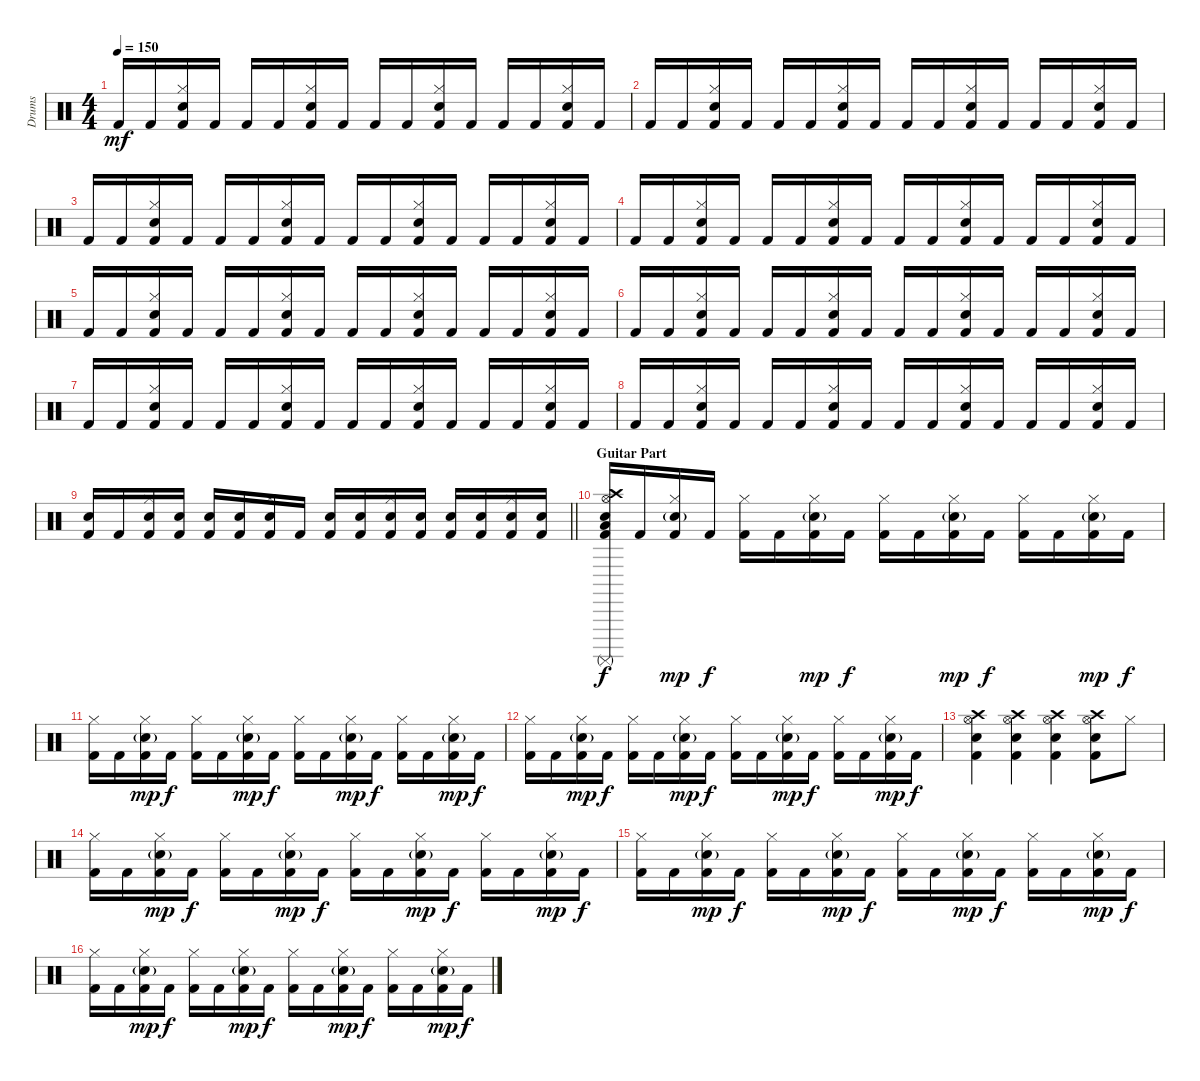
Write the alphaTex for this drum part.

\track ("Drums" "Drums") {instrument percussion}
\staff {score}
\articulation defaults
\ts (4 4)
\tempo 150
\clef neutral
\ks c "Kick (hit) 2".16{dy mf} "Kick (hit) 2".16
("Hi-Hat (closed)" "Electric Snare (hit)" "Kick (hit) 2").16 "Kick (hit) 2".16 "Kick (hit) 2".16 "Kick (hit) 2".16 ("Hi-Hat (closed)" "Electric Snare (hit)" "Kick (hit) 2").16 "Kick (hit) 2".16 "Kick (hit) 2".16 "Kick (hit) 2".16 ("Hi-Hat (closed)" "Electric Snare (hit)" "Kick (hit) 2").16 "Kick (hit) 2".16 "Kick (hit) 2".16 "Kick (hit) 2".16 ("Hi-Hat (closed)" "Electric Snare (hit)" "Kick (hit) 2").16 "Kick (hit) 2".16 |
"Kick (hit) 2".16 "Kick (hit) 2".16 ("Hi-Hat (closed)" "Electric Snare (hit)" "Kick (hit) 2").16 "Kick (hit) 2".16 "Kick (hit) 2".16 "Kick (hit) 2".16 ("Hi-Hat (closed)" "Electric Snare (hit)" "Kick (hit) 2").16 "Kick (hit) 2".16 "Kick (hit) 2".16 "Kick (hit) 2".16 ("Hi-Hat (closed)" "Electric Snare (hit)" "Kick (hit) 2").16 "Kick (hit) 2".16 "Kick (hit) 2".16 "Kick (hit) 2".16 ("Hi-Hat (closed)" "Electric Snare (hit)" "Kick (hit) 2").16 "Kick (hit) 2".16 |
"Kick (hit) 2".16 "Kick (hit) 2".16 ("Hi-Hat (closed)" "Electric Snare (hit)" "Kick (hit) 2").16 "Kick (hit) 2".16 "Kick (hit) 2".16 "Kick (hit) 2".16 ("Hi-Hat (closed)" "Electric Snare (hit)" "Kick (hit) 2").16 "Kick (hit) 2".16 "Kick (hit) 2".16 "Kick (hit) 2".16 ("Hi-Hat (closed)" "Electric Snare (hit)" "Kick (hit) 2").16 "Kick (hit) 2".16 "Kick (hit) 2".16 "Kick (hit) 2".16 ("Hi-Hat (closed)" "Electric Snare (hit)" "Kick (hit) 2").16 "Kick (hit) 2".16 |
"Kick (hit) 2".16 "Kick (hit) 2".16 ("Hi-Hat (closed)" "Electric Snare (hit)" "Kick (hit) 2").16 "Kick (hit) 2".16 "Kick (hit) 2".16 "Kick (hit) 2".16 ("Hi-Hat (closed)" "Electric Snare (hit)" "Kick (hit) 2").16 "Kick (hit) 2".16 "Kick (hit) 2".16 "Kick (hit) 2".16 ("Hi-Hat (closed)" "Electric Snare (hit)" "Kick (hit) 2").16 "Kick (hit) 2".16 "Kick (hit) 2".16 "Kick (hit) 2".16 ("Hi-Hat (closed)" "Electric Snare (hit)" "Kick (hit) 2").16 "Kick (hit) 2".16 |
"Kick (hit) 2".16 "Kick (hit) 2".16 ("Hi-Hat (closed)" "Electric Snare (hit)" "Kick (hit) 2").16 "Kick (hit) 2".16 "Kick (hit) 2".16 "Kick (hit) 2".16 ("Hi-Hat (closed)" "Electric Snare (hit)" "Kick (hit) 2").16 "Kick (hit) 2".16 "Kick (hit) 2".16 "Kick (hit) 2".16 ("Hi-Hat (closed)" "Electric Snare (hit)" "Kick (hit) 2").16 "Kick (hit) 2".16 "Kick (hit) 2".16 "Kick (hit) 2".16 ("Hi-Hat (closed)" "Electric Snare (hit)" "Kick (hit) 2").16 "Kick (hit) 2".16 |
"Kick (hit) 2".16 "Kick (hit) 2".16 ("Hi-Hat (closed)" "Electric Snare (hit)" "Kick (hit) 2").16 "Kick (hit) 2".16 "Kick (hit) 2".16 "Kick (hit) 2".16 ("Hi-Hat (closed)" "Electric Snare (hit)" "Kick (hit) 2").16 "Kick (hit) 2".16 "Kick (hit) 2".16 "Kick (hit) 2".16 ("Hi-Hat (closed)" "Electric Snare (hit)" "Kick (hit) 2").16 "Kick (hit) 2".16 "Kick (hit) 2".16 "Kick (hit) 2".16 ("Hi-Hat (closed)" "Electric Snare (hit)" "Kick (hit) 2").16 "Kick (hit) 2".16 |
"Kick (hit) 2".16 "Kick (hit) 2".16 ("Hi-Hat (closed)" "Electric Snare (hit)" "Kick (hit) 2").16 "Kick (hit) 2".16 "Kick (hit) 2".16 "Kick (hit) 2".16 ("Hi-Hat (closed)" "Electric Snare (hit)" "Kick (hit) 2").16 "Kick (hit) 2".16 "Kick (hit) 2".16 "Kick (hit) 2".16 ("Hi-Hat (closed)" "Electric Snare (hit)" "Kick (hit) 2").16 "Kick (hit) 2".16 "Kick (hit) 2".16 "Kick (hit) 2".16 ("Hi-Hat (closed)" "Electric Snare (hit)" "Kick (hit) 2").16 "Kick (hit) 2".16 |
"Kick (hit) 2".16 "Kick (hit) 2".16 ("Hi-Hat (closed)" "Electric Snare (hit)" "Kick (hit) 2").16 "Kick (hit) 2".16 "Kick (hit) 2".16 "Kick (hit) 2".16 ("Hi-Hat (closed)" "Electric Snare (hit)" "Kick (hit) 2").16 "Kick (hit) 2".16 "Kick (hit) 2".16 "Kick (hit) 2".16 ("Hi-Hat (closed)" "Electric Snare (hit)" "Kick (hit) 2").16 "Kick (hit) 2".16 "Kick (hit) 2".16 "Kick (hit) 2".16 ("Hi-Hat (closed)" "Electric Snare (hit)" "Kick (hit) 2").16 "Kick (hit) 2".16 |
\barLineRight lightlight
("Electric Snare (hit)" "Kick (hit) 2").16 "Kick (hit) 2".16 ("Hi-Hat (closed)" "Electric Snare (hit)" "Kick (hit) 2").16 ("Electric Snare (hit)" "Kick (hit) 2").16 ("Electric Snare (hit)" "Kick (hit) 2").16 ("Electric Snare (hit)" "Kick (hit) 2").16 ("Hi-Hat (closed)" "Electric Snare (hit)" "Kick (hit) 2").16 "Kick (hit) 2".16 ("Electric Snare (hit)" "Kick (hit) 2").16 ("Electric Snare (hit)" "Kick (hit) 2").16 ("Hi-Hat (closed)" "Electric Snare (hit)" "Kick (hit) 2").16 ("Electric Snare (hit)" "Kick (hit) 2").16 ("Electric Snare (hit)" "Kick (hit) 2").16 ("Electric Snare (hit)" "Kick (hit) 2").16 ("Hi-Hat (closed)" "Electric Snare (hit)" "Kick (hit) 2").16 ("Electric Snare (hit)" "Kick (hit) 2").16 |
\section ("" "Guitar Part")
("Crash high (hit)" "Hi-Hat (open)" "Electric Snare (hit)" "Low Floor Tom (hit)" "Surdo (mute)" "Kick (hit) 2").16{dy f} "Kick (hit) 2".16 ("Hi-Hat (closed)" "Electric Snare (hit)"{g} "Kick (hit) 2").16{dy mp} "Kick (hit) 2".16{dy f} ("Hi-Hat (closed)" "Kick (hit) 2").16 "Kick (hit) 2".16 ("Hi-Hat (closed)" "Electric Snare (hit)"{g} "Kick (hit) 2").16{dy mp} "Kick (hit) 2".16{dy f} ("Hi-Hat (closed)" "Kick (hit) 2").16 "Kick (hit) 2".16 ("Hi-Hat (closed)" "Electric Snare (hit)"{g} "Kick (hit) 2").16{dy mp} "Kick (hit) 2".16{dy f} ("Hi-Hat (closed)" "Kick (hit) 2").16 "Kick (hit) 2".16 ("Hi-Hat (closed)" "Electric Snare (hit)"{g} "Kick (hit) 2").16{dy mp} "Kick (hit) 2".16{dy f} |
("Hi-Hat (closed)" "Kick (hit) 2").16 "Kick (hit) 2".16 ("Hi-Hat (closed)" "Electric Snare (hit)"{g} "Kick (hit) 2").16{dy mp} "Kick (hit) 2".16{dy f} ("Hi-Hat (closed)" "Kick (hit) 2").16 "Kick (hit) 2".16 ("Hi-Hat (closed)" "Electric Snare (hit)"{g} "Kick (hit) 2").16{dy mp} "Kick (hit) 2".16{dy f} ("Hi-Hat (closed)" "Kick (hit) 2").16 "Kick (hit) 2".16 ("Hi-Hat (closed)" "Electric Snare (hit)"{g} "Kick (hit) 2").16{dy mp} "Kick (hit) 2".16{dy f} ("Hi-Hat (closed)" "Kick (hit) 2").16 "Kick (hit) 2".16 ("Hi-Hat (closed)" "Electric Snare (hit)"{g} "Kick (hit) 2").16{dy mp} "Kick (hit) 2".16{dy f} |
("Hi-Hat (closed)" "Kick (hit) 2").16 "Kick (hit) 2".16 ("Hi-Hat (closed)" "Electric Snare (hit)"{g} "Kick (hit) 2").16{dy mp} "Kick (hit) 2".16{dy f} ("Hi-Hat (closed)" "Kick (hit) 2").16 "Kick (hit) 2".16 ("Hi-Hat (closed)" "Electric Snare (hit)"{g} "Kick (hit) 2").16{dy mp} "Kick (hit) 2".16{dy f} ("Hi-Hat (closed)" "Kick (hit) 2").16 "Kick (hit) 2".16 ("Hi-Hat (closed)" "Electric Snare (hit)"{g} "Kick (hit) 2").16{dy mp} "Kick (hit) 2".16{dy f} ("Hi-Hat (closed)" "Kick (hit) 2").16 "Kick (hit) 2".16 ("Hi-Hat (closed)" "Electric Snare (hit)"{g} "Kick (hit) 2").16{dy mp} "Kick (hit) 2".16{dy f} |
("Crash high (hit)" "Hi-Hat (open)" "Electric Snare (hit)" "Kick (hit) 2").4 ("Crash high (hit)" "Hi-Hat (open)" "Electric Snare (hit)" "Kick (hit) 2").4 ("Crash high (hit)" "Hi-Hat (open)" "Electric Snare (hit)" "Kick (hit) 2").4 ("Crash high (hit)" "Hi-Hat (open)" "Electric Snare (hit)" "Kick (hit) 2").8 "Hi-Hat (closed)".8 |
("Hi-Hat (closed)" "Kick (hit) 2").16 "Kick (hit) 2".16 ("Hi-Hat (closed)" "Electric Snare (hit)"{g} "Kick (hit) 2").16{dy mp} "Kick (hit) 2".16{dy f} ("Hi-Hat (closed)" "Kick (hit) 2").16 "Kick (hit) 2".16 ("Hi-Hat (closed)" "Electric Snare (hit)"{g} "Kick (hit) 2").16{dy mp} "Kick (hit) 2".16{dy f} ("Hi-Hat (closed)" "Kick (hit) 2").16 "Kick (hit) 2".16 ("Hi-Hat (closed)" "Electric Snare (hit)"{g} "Kick (hit) 2").16{dy mp} "Kick (hit) 2".16{dy f} ("Hi-Hat (closed)" "Kick (hit) 2").16 "Kick (hit) 2".16 ("Hi-Hat (closed)" "Electric Snare (hit)"{g} "Kick (hit) 2").16{dy mp} "Kick (hit) 2".16{dy f} |
("Hi-Hat (closed)" "Kick (hit) 2").16 "Kick (hit) 2".16 ("Hi-Hat (closed)" "Electric Snare (hit)"{g} "Kick (hit) 2").16{dy mp} "Kick (hit) 2".16{dy f} ("Hi-Hat (closed)" "Kick (hit) 2").16 "Kick (hit) 2".16 ("Hi-Hat (closed)" "Electric Snare (hit)"{g} "Kick (hit) 2").16{dy mp} "Kick (hit) 2".16{dy f} ("Hi-Hat (closed)" "Kick (hit) 2").16 "Kick (hit) 2".16 ("Hi-Hat (closed)" "Electric Snare (hit)"{g} "Kick (hit) 2").16{dy mp} "Kick (hit) 2".16{dy f} ("Hi-Hat (closed)" "Kick (hit) 2").16 "Kick (hit) 2".16 ("Hi-Hat (closed)" "Electric Snare (hit)"{g} "Kick (hit) 2").16{dy mp} "Kick (hit) 2".16{dy f} |
("Hi-Hat (closed)" "Kick (hit) 2").16 "Kick (hit) 2".16 ("Hi-Hat (closed)" "Electric Snare (hit)"{g} "Kick (hit) 2").16{dy mp} "Kick (hit) 2".16{dy f} ("Hi-Hat (closed)" "Kick (hit) 2").16 "Kick (hit) 2".16 ("Hi-Hat (closed)" "Electric Snare (hit)"{g} "Kick (hit) 2").16{dy mp} "Kick (hit) 2".16{dy f} ("Hi-Hat (closed)" "Kick (hit) 2").16 "Kick (hit) 2".16 ("Hi-Hat (closed)" "Electric Snare (hit)"{g} "Kick (hit) 2").16{dy mp} "Kick (hit) 2".16{dy f} ("Hi-Hat (closed)" "Kick (hit) 2").16 "Kick (hit) 2".16 ("Hi-Hat (closed)" "Electric Snare (hit)"{g} "Kick (hit) 2").16{dy mp} "Kick (hit) 2".16{dy f}
